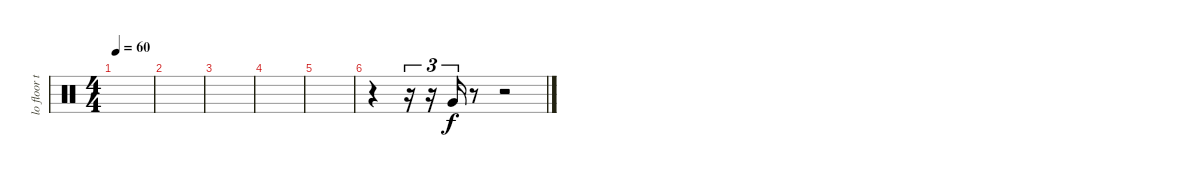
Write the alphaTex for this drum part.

\track ("lo floor tom" "lo floor t") {instrument percussion}
\staff {score}
\articulation defaults
\ts (4 4)
\tempo 60
\clef neutral
\ks c
|
|
|
|
|
r.4 r.16{tu (3 2)} r.16{tu (3 2)} "Very Low Tom (hit)".16{tu (3 2)} r.8 r.2
